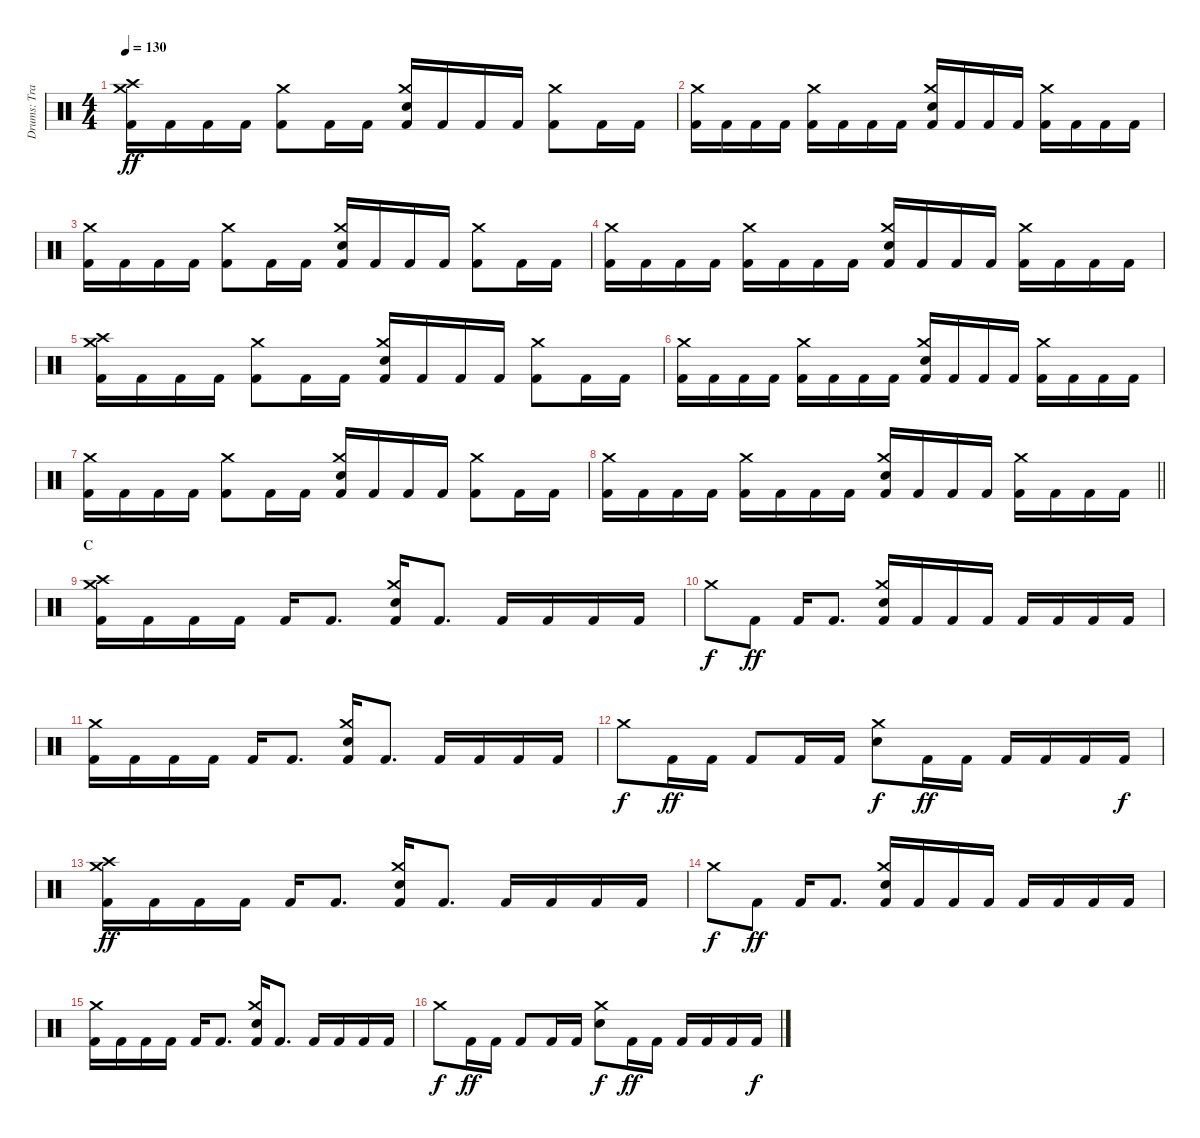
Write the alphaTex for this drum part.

\track ("Drums: Travis Clarke" "Drums: Tra") {instrument percussion}
\staff {score}
\articulation defaults
\ts (4 4)
\tempo 130
\clef neutral
\ks c
("Kick (hit) 2" "Crash high (hit)" "Crash medium (hit)").16{dy ff} "Kick (hit) 2".16 "Kick (hit) 2".16 "Kick (hit) 2".16 ("Kick (hit) 2" "Crash medium (hit)").8 "Kick (hit) 2".16 "Kick (hit) 2".16 ("Kick (hit) 2" "Snare (hit) 2" "Crash medium (hit)").16 "Kick (hit) 2".16 "Kick (hit) 2".16 "Kick (hit) 2".16 ("Kick (hit) 2" "Crash medium (hit)").8 "Kick (hit) 2".16 "Kick (hit) 2".16 |
("Kick (hit) 2" "Crash medium (hit)").16 "Kick (hit) 2".16 "Kick (hit) 2".16 "Kick (hit) 2".16 ("Kick (hit) 2" "Crash medium (hit)").16 "Kick (hit) 2".16 "Kick (hit) 2".16 "Kick (hit) 2".16 ("Kick (hit) 2" "Snare (hit) 2" "Crash medium (hit)").16 "Kick (hit) 2".16 "Kick (hit) 2".16 "Kick (hit) 2".16 ("Kick (hit) 2" "Crash medium (hit)").16 "Kick (hit) 2".16 "Kick (hit) 2".16 "Kick (hit) 2".16 |
("Kick (hit) 2" "Crash medium (hit)").16 "Kick (hit) 2".16 "Kick (hit) 2".16 "Kick (hit) 2".16 ("Kick (hit) 2" "Crash medium (hit)").8 "Kick (hit) 2".16 "Kick (hit) 2".16 ("Kick (hit) 2" "Snare (hit) 2" "Crash medium (hit)").16 "Kick (hit) 2".16 "Kick (hit) 2".16 "Kick (hit) 2".16 ("Kick (hit) 2" "Crash medium (hit)").8 "Kick (hit) 2".16 "Kick (hit) 2".16 |
("Kick (hit) 2" "Crash medium (hit)").16 "Kick (hit) 2".16 "Kick (hit) 2".16 "Kick (hit) 2".16 ("Kick (hit) 2" "Crash medium (hit)").16 "Kick (hit) 2".16 "Kick (hit) 2".16 "Kick (hit) 2".16 ("Kick (hit) 2" "Snare (hit) 2" "Crash medium (hit)").16 "Kick (hit) 2".16 "Kick (hit) 2".16 "Kick (hit) 2".16 ("Kick (hit) 2" "Crash medium (hit)").16 "Kick (hit) 2".16 "Kick (hit) 2".16 "Kick (hit) 2".16 |
("Kick (hit) 2" "Crash high (hit)" "Crash medium (hit)").16 "Kick (hit) 2".16 "Kick (hit) 2".16 "Kick (hit) 2".16 ("Kick (hit) 2" "Crash medium (hit)").8 "Kick (hit) 2".16 "Kick (hit) 2".16 ("Kick (hit) 2" "Snare (hit) 2" "Crash medium (hit)").16 "Kick (hit) 2".16 "Kick (hit) 2".16 "Kick (hit) 2".16 ("Kick (hit) 2" "Crash medium (hit)").8 "Kick (hit) 2".16 "Kick (hit) 2".16 |
("Kick (hit) 2" "Crash medium (hit)").16 "Kick (hit) 2".16 "Kick (hit) 2".16 "Kick (hit) 2".16 ("Kick (hit) 2" "Crash medium (hit)").16 "Kick (hit) 2".16 "Kick (hit) 2".16 "Kick (hit) 2".16 ("Kick (hit) 2" "Snare (hit) 2" "Crash medium (hit)").16 "Kick (hit) 2".16 "Kick (hit) 2".16 "Kick (hit) 2".16 ("Kick (hit) 2" "Crash medium (hit)").16 "Kick (hit) 2".16 "Kick (hit) 2".16 "Kick (hit) 2".16 |
("Kick (hit) 2" "Crash medium (hit)").16 "Kick (hit) 2".16 "Kick (hit) 2".16 "Kick (hit) 2".16 ("Kick (hit) 2" "Crash medium (hit)").8 "Kick (hit) 2".16 "Kick (hit) 2".16 ("Kick (hit) 2" "Snare (hit) 2" "Crash medium (hit)").16 "Kick (hit) 2".16 "Kick (hit) 2".16 "Kick (hit) 2".16 ("Kick (hit) 2" "Crash medium (hit)").8 "Kick (hit) 2".16 "Kick (hit) 2".16 |
\barLineRight lightlight
("Kick (hit) 2" "Crash medium (hit)").16 "Kick (hit) 2".16 "Kick (hit) 2".16 "Kick (hit) 2".16 ("Kick (hit) 2" "Crash medium (hit)").16 "Kick (hit) 2".16 "Kick (hit) 2".16 "Kick (hit) 2".16 ("Kick (hit) 2" "Snare (hit) 2" "Crash medium (hit)").16 "Kick (hit) 2".16 "Kick (hit) 2".16 "Kick (hit) 2".16 ("Kick (hit) 2" "Crash medium (hit)").16 "Kick (hit) 2".16 "Kick (hit) 2".16 "Kick (hit) 2".16 |
\section ("" "C")
("Kick (hit) 2" "Crash high (hit)" "Crash medium (hit)").16 "Kick (hit) 2".16 "Kick (hit) 2".16 "Kick (hit) 2".16 "Kick (hit) 2".16 "Kick (hit) 2".8{d} ("Kick (hit) 2" "Snare (hit) 2" "Crash medium (hit)").16 "Kick (hit) 2".8{d} "Kick (hit) 2".16 "Kick (hit) 2".16 "Kick (hit) 2".16 "Kick (hit) 2".16 |
"Crash medium (hit)".8{dy f} "Kick (hit) 2".8{dy ff} "Kick (hit) 2".16 "Kick (hit) 2".8{d} ("Kick (hit) 2" "Snare (hit) 2" "Crash medium (hit)").16 "Kick (hit) 2".16 "Kick (hit) 2".16 "Kick (hit) 2".16 "Kick (hit) 2".16 "Kick (hit) 2".16 "Kick (hit) 2".16 "Kick (hit) 2".16 |
("Kick (hit) 2" "Crash medium (hit)").16 "Kick (hit) 2".16 "Kick (hit) 2".16 "Kick (hit) 2".16 "Kick (hit) 2".16 "Kick (hit) 2".8{d} ("Kick (hit) 2" "Snare (hit) 2" "Crash medium (hit)").16 "Kick (hit) 2".8{d} "Kick (hit) 2".16 "Kick (hit) 2".16 "Kick (hit) 2".16 "Kick (hit) 2".16 |
"Crash medium (hit)".8{dy f} "Kick (hit) 2".16{dy ff} "Kick (hit) 2".16 "Kick (hit) 2".8 "Kick (hit) 2".16 "Kick (hit) 2".16 ("Snare (hit) 2" "Crash medium (hit)").8{dy f} "Kick (hit) 2".16{dy ff} "Kick (hit) 2".16 "Kick (hit) 2".16 "Kick (hit) 2".16 "Kick (hit) 2".16 "Kick (hit) 2".16{dy f} |
("Kick (hit) 2" "Crash high (hit)" "Crash medium (hit)").16{dy ff} "Kick (hit) 2".16 "Kick (hit) 2".16 "Kick (hit) 2".16 "Kick (hit) 2".16 "Kick (hit) 2".8{d} ("Kick (hit) 2" "Snare (hit) 2" "Crash medium (hit)").16 "Kick (hit) 2".8{d} "Kick (hit) 2".16 "Kick (hit) 2".16 "Kick (hit) 2".16 "Kick (hit) 2".16 |
"Crash medium (hit)".8{dy f} "Kick (hit) 2".8{dy ff} "Kick (hit) 2".16 "Kick (hit) 2".8{d} ("Kick (hit) 2" "Snare (hit) 2" "Crash medium (hit)").16 "Kick (hit) 2".16 "Kick (hit) 2".16 "Kick (hit) 2".16 "Kick (hit) 2".16 "Kick (hit) 2".16 "Kick (hit) 2".16 "Kick (hit) 2".16 |
("Kick (hit) 2" "Crash medium (hit)").16 "Kick (hit) 2".16 "Kick (hit) 2".16 "Kick (hit) 2".16 "Kick (hit) 2".16 "Kick (hit) 2".8{d} ("Kick (hit) 2" "Snare (hit) 2" "Crash medium (hit)").16 "Kick (hit) 2".8{d} "Kick (hit) 2".16 "Kick (hit) 2".16 "Kick (hit) 2".16 "Kick (hit) 2".16 |
"Crash medium (hit)".8{dy f} "Kick (hit) 2".16{dy ff} "Kick (hit) 2".16 "Kick (hit) 2".8 "Kick (hit) 2".16 "Kick (hit) 2".16 ("Snare (hit) 2" "Crash medium (hit)").8{dy f} "Kick (hit) 2".16{dy ff} "Kick (hit) 2".16 "Kick (hit) 2".16 "Kick (hit) 2".16 "Kick (hit) 2".16 "Kick (hit) 2".16{dy f}
